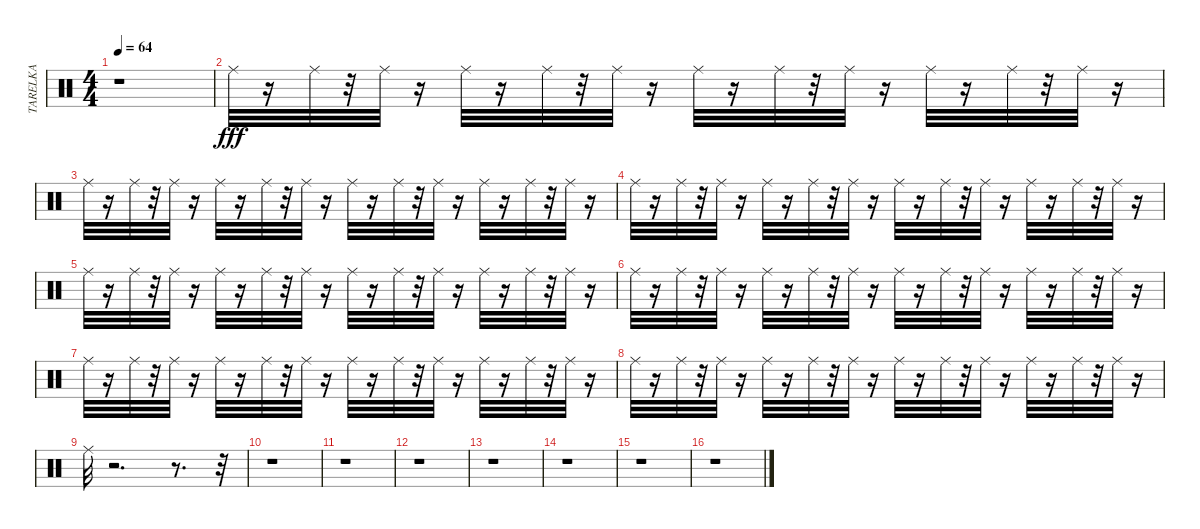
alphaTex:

\track ("TARELKA" "TARELKA") {instrument percussion}
\staff {score}
\articulation defaults
\ts (4 4)
\tempo 64
\clef neutral
\ks c
r.1{dy fff} |
"Ride (middle)".32 r.16 "Ride (middle)".32 r.32 "Ride (middle)".32 r.16 "Ride (middle)".32 r.16 "Ride (middle)".32 r.32 "Ride (middle)".32 r.16 "Ride (middle)".32 r.16 "Ride (middle)".32 r.32 "Ride (middle)".32 r.16 "Ride (middle)".32 r.16 "Ride (middle)".32 r.32 "Ride (middle)".32 r.16 |
"Ride (middle)".32 r.16 "Ride (middle)".32 r.32 "Ride (middle)".32 r.16 "Ride (middle)".32 r.16 "Ride (middle)".32 r.32 "Ride (middle)".32 r.16 "Ride (middle)".32 r.16 "Ride (middle)".32 r.32 "Ride (middle)".32 r.16 "Ride (middle)".32 r.16 "Ride (middle)".32 r.32 "Ride (middle)".32 r.16 |
"Ride (middle)".32 r.16 "Ride (middle)".32 r.32 "Ride (middle)".32 r.16 "Ride (middle)".32 r.16 "Ride (middle)".32 r.32 "Ride (middle)".32 r.16 "Ride (middle)".32 r.16 "Ride (middle)".32 r.32 "Ride (middle)".32 r.16 "Ride (middle)".32 r.16 "Ride (middle)".32 r.32 "Ride (middle)".32 r.16 |
"Ride (middle)".32 r.16 "Ride (middle)".32 r.32 "Ride (middle)".32 r.16 "Ride (middle)".32 r.16 "Ride (middle)".32 r.32 "Ride (middle)".32 r.16 "Ride (middle)".32 r.16 "Ride (middle)".32 r.32 "Ride (middle)".32 r.16 "Ride (middle)".32 r.16 "Ride (middle)".32 r.32 "Ride (middle)".32 r.16 |
"Ride (middle)".32 r.16 "Ride (middle)".32 r.32 "Ride (middle)".32 r.16 "Ride (middle)".32 r.16 "Ride (middle)".32 r.32 "Ride (middle)".32 r.16 "Ride (middle)".32 r.16 "Ride (middle)".32 r.32 "Ride (middle)".32 r.16 "Ride (middle)".32 r.16 "Ride (middle)".32 r.32 "Ride (middle)".32 r.16 |
"Ride (middle)".32 r.16 "Ride (middle)".32 r.32 "Ride (middle)".32 r.16 "Ride (middle)".32 r.16 "Ride (middle)".32 r.32 "Ride (middle)".32 r.16 "Ride (middle)".32 r.16 "Ride (middle)".32 r.32 "Ride (middle)".32 r.16 "Ride (middle)".32 r.16 "Ride (middle)".32 r.32 "Ride (middle)".32 r.16 |
"Ride (middle)".32 r.16 "Ride (middle)".32 r.32 "Ride (middle)".32 r.16 "Ride (middle)".32 r.16 "Ride (middle)".32 r.32 "Ride (middle)".32 r.16 "Ride (middle)".32 r.16 "Ride (middle)".32 r.32 "Ride (middle)".32 r.16 "Ride (middle)".32 r.16 "Ride (middle)".32 r.32 "Ride (middle)".32 r.16 |
"Ride (middle)".32 r.2{d} r.8{d} r.32 |
r.1 |
r.1 |
r.1 |
r.1 |
r.1 |
r.1 |
r.1
